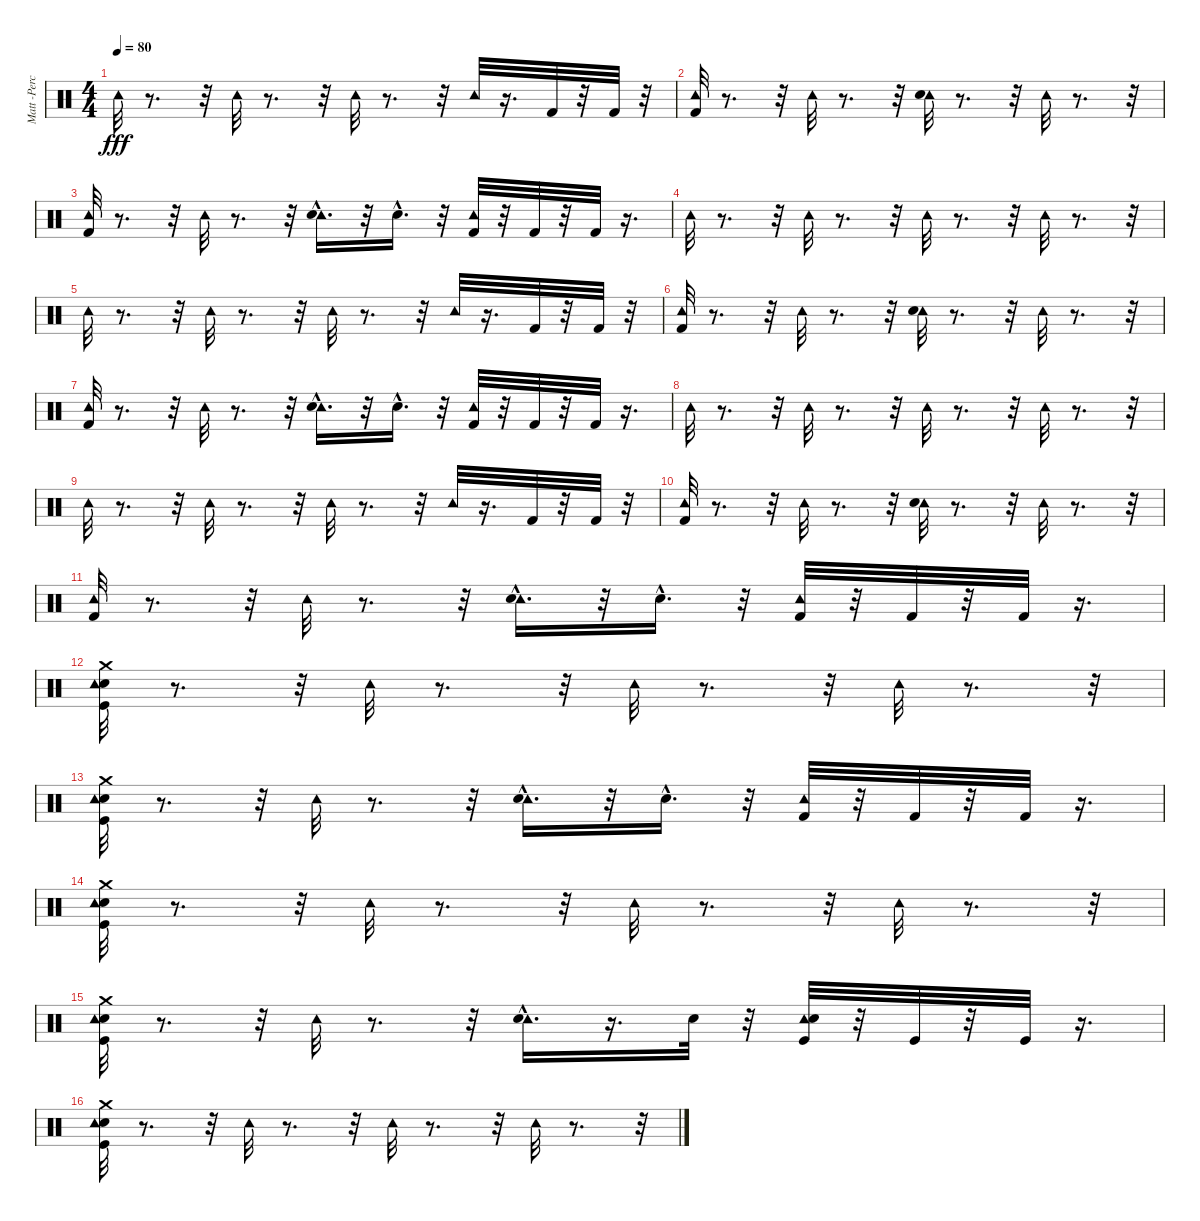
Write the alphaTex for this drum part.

\track ("Matt -Percussion-" "Matt -Perc") {instrument percussion}
\staff {score}
\articulation defaults
\ts (4 4)
\tempo 80
\clef neutral
\ks c "Tambourine (hit)".32{dy fff}
r.8{d} r.32 "Tambourine (hit)".32 r.8{d} r.32 "Tambourine (hit)".32 r.8{d} r.32 "Tambourine (hit)".32 r.16{d} "Kick (hit) 2".32 r.32 "Kick (hit) 2".32 r.32 |
("Tambourine (hit)" "Kick (hit) 2").32 r.8{d} r.32 "Tambourine (hit)".32 r.8{d} r.32 ("Tambourine (hit)" "Snare (hit) 2").32 r.8{d} r.32 "Tambourine (hit)".32 r.8{d} r.32 |
("Tambourine (hit)" "Kick (hit) 2").32 r.8{d} r.32 "Tambourine (hit)".32 r.8{d} r.32 ("Tambourine (hit)" "Snare (hit) 2"{hac}).16{d} r.32 "Snare (hit) 2"{hac}.16{d} r.32 ("Tambourine (hit)" "Kick (hit) 2").32 r.32 "Kick (hit) 2".32 r.32 "Kick (hit) 2".32 r.16{d} |
"Tambourine (hit)".32 r.8{d} r.32 "Tambourine (hit)".32 r.8{d} r.32 "Tambourine (hit)".32 r.8{d} r.32 "Tambourine (hit)".32 r.8{d} r.32 |
"Tambourine (hit)".32 r.8{d} r.32 "Tambourine (hit)".32 r.8{d} r.32 "Tambourine (hit)".32 r.8{d} r.32 "Tambourine (hit)".32 r.16{d} "Kick (hit) 2".32 r.32 "Kick (hit) 2".32 r.32 |
("Tambourine (hit)" "Kick (hit) 2").32 r.8{d} r.32 "Tambourine (hit)".32 r.8{d} r.32 ("Tambourine (hit)" "Snare (hit) 2").32 r.8{d} r.32 "Tambourine (hit)".32 r.8{d} r.32 |
("Tambourine (hit)" "Kick (hit) 2").32 r.8{d} r.32 "Tambourine (hit)".32 r.8{d} r.32 ("Tambourine (hit)" "Snare (hit) 2"{hac}).16{d} r.32 "Snare (hit) 2"{hac}.16{d} r.32 ("Tambourine (hit)" "Kick (hit) 2").32 r.32 "Kick (hit) 2".32 r.32 "Kick (hit) 2".32 r.16{d} |
"Tambourine (hit)".32 r.8{d} r.32 "Tambourine (hit)".32 r.8{d} r.32 "Tambourine (hit)".32 r.8{d} r.32 "Tambourine (hit)".32 r.8{d} r.32 |
"Tambourine (hit)".32 r.8{d} r.32 "Tambourine (hit)".32 r.8{d} r.32 "Tambourine (hit)".32 r.8{d} r.32 "Tambourine (hit)".32 r.16{d} "Kick (hit) 2".32 r.32 "Kick (hit) 2".32 r.32 |
("Tambourine (hit)" "Kick (hit) 2").32 r.8{d} r.32 "Tambourine (hit)".32 r.8{d} r.32 ("Tambourine (hit)" "Snare (hit) 2").32 r.8{d} r.32 "Tambourine (hit)".32 r.8{d} r.32 |
("Tambourine (hit)" "Kick (hit) 2").32 r.8{d} r.32 "Tambourine (hit)".32 r.8{d} r.32 ("Tambourine (hit)" "Snare (hit) 2"{hac}).16{d} r.32 "Snare (hit) 2"{hac}.16{d} r.32 ("Tambourine (hit)" "Kick (hit) 2").32 r.32 "Kick (hit) 2".32 r.32 "Kick (hit) 2".32 r.16{d} |
("Kick (hit)" "Snare (hit) 2" "Crash medium (hit)" "Tambourine (hit)").32 r.8{d} r.32 "Tambourine (hit)".32 r.8{d} r.32 "Tambourine (hit)".32 r.8{d} r.32 "Tambourine (hit)".32 r.8{d} r.32 |
("Kick (hit)" "Snare (hit) 2" "Crash medium (hit)" "Tambourine (hit)").32 r.8{d} r.32 "Tambourine (hit)".32 r.8{d} r.32 ("Tambourine (hit)" "Snare (hit) 2"{hac}).16{d} r.32 "Snare (hit) 2"{hac}.16{d} r.32 ("Tambourine (hit)" "Kick (hit) 2").32 r.32 "Kick (hit) 2".32 r.32 "Kick (hit) 2".32 r.16{d} |
("Kick (hit)" "Snare (hit) 2" "Crash medium (hit)" "Tambourine (hit)").32 r.8{d} r.32 "Tambourine (hit)".32 r.8{d} r.32 "Tambourine (hit)".32 r.8{d} r.32 "Tambourine (hit)".32 r.8{d} r.32 |
("Kick (hit)" "Snare (hit) 2" "Crash medium (hit)" "Tambourine (hit)").32 r.8{d} r.32 "Tambourine (hit)".32 r.8{d} r.32 ("Tambourine (hit)" "Snare (hit) 2"{hac}).16{d} r.16{d} "Snare (hit) 2".32 r.32 ("Tambourine (hit)" "Snare (hit) 2" "Kick (hit)").32 r.32 "Kick (hit)".32 r.32 "Kick (hit)".32 r.16{d} |
("Kick (hit)" "Snare (hit) 2" "Crash medium (hit)" "Tambourine (hit)").32 r.8{d} r.32 "Tambourine (hit)".32 r.8{d} r.32 "Tambourine (hit)".32 r.8{d} r.32 "Tambourine (hit)".32 r.8{d} r.32
